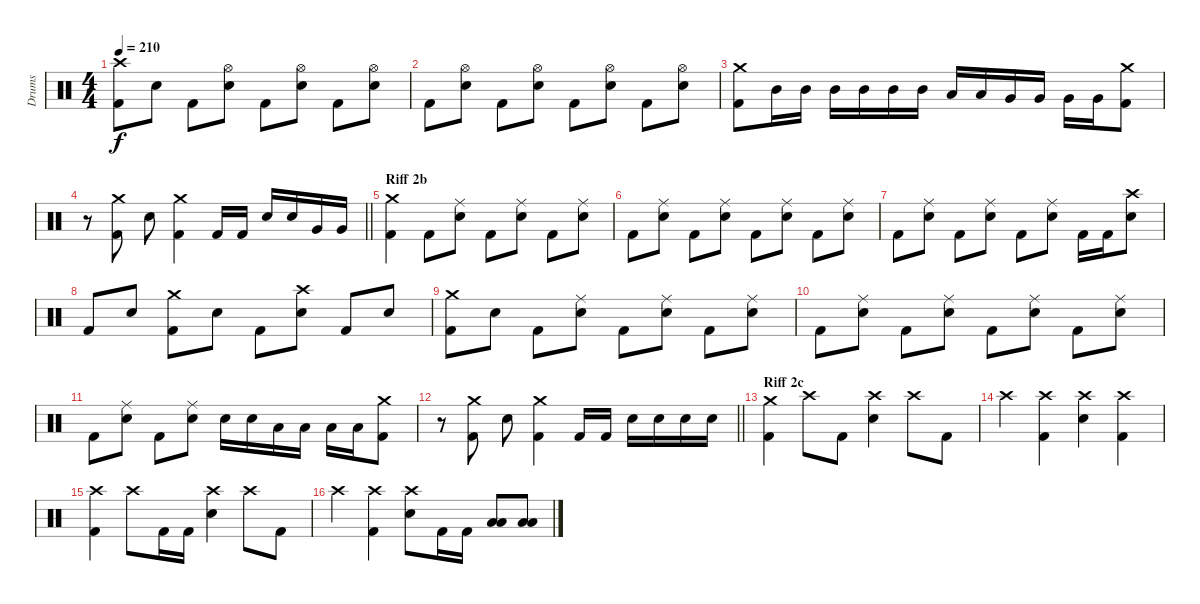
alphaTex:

\track ("Drums" "Drums") {instrument percussion}
\staff {score}
\articulation defaults
\ts (4 4)
\tempo 210
\clef neutral
\ks c
("Kick (hit) 2" "Crash high (hit)").8{dy f} "Electric Snare (hit)".8 "Kick (hit) 2".8 ("Electric Snare (hit)" "Hi-Hat (open)").8 "Kick (hit) 2".8 ("Electric Snare (hit)" "Hi-Hat (open)").8 "Kick (hit) 2".8 ("Electric Snare (hit)" "Hi-Hat (open)").8 |
"Kick (hit) 2".8 ("Electric Snare (hit)" "Hi-Hat (open)").8 "Kick (hit) 2".8 ("Electric Snare (hit)" "Hi-Hat (open)").8 "Kick (hit) 2".8 ("Electric Snare (hit)" "Hi-Hat (open)").8 "Kick (hit) 2".8 ("Electric Snare (hit)" "Hi-Hat (open)").8 |
("Crash medium (hit)" "Kick (hit) 2").8 "Mid Tom (hit)".16 "Mid Tom (hit)".16 "Mid Tom (hit)".16 "Mid Tom (hit)".16 "Mid Tom (hit)".16 "Mid Tom (hit)".16 "Low Tom (hit)".16 "Low Tom (hit)".16 "Very Low Tom (hit)".16 "Very Low Tom (hit)".16 "Very Low Tom (hit)".16 "Very Low Tom (hit)".16 ("Kick (hit) 2" "Crash medium (hit)").8 |
\barLineRight lightlight
r.8 ("Kick (hit) 2" "Crash medium (hit)").8 "Electric Snare (hit)".8 ("Kick (hit) 2" "Crash medium (hit)").4 "Kick (hit) 2".16 "Kick (hit) 2".16 "Electric Snare (hit)".16 "Electric Snare (hit)".16 "Very Low Tom (hit)".16 "Very Low Tom (hit)".16 |
\section ("" "Riff 2b")
("Crash medium (hit)" "Kick (hit) 2").4 "Kick (hit) 2".8 ("Electric Snare (hit)" "Ride (middle)").8 "Kick (hit) 2".8 ("Electric Snare (hit)" "Ride (middle)").8 "Kick (hit) 2".8 ("Electric Snare (hit)" "Ride (middle)").8 |
"Kick (hit) 2".8 ("Electric Snare (hit)" "Ride (middle)").8 "Kick (hit) 2".8 ("Electric Snare (hit)" "Ride (middle)").8 "Kick (hit) 2".8 ("Electric Snare (hit)" "Ride (middle)").8 "Kick (hit) 2".8 ("Electric Snare (hit)" "Ride (middle)").8 |
"Kick (hit) 2".8 ("Electric Snare (hit)" "Ride (middle)").8 "Kick (hit) 2".8 ("Electric Snare (hit)" "Ride (middle)").8 "Kick (hit) 2".8 ("Electric Snare (hit)" "Ride (middle)").8 "Kick (hit) 2".16 "Kick (hit) 2".16 ("Electric Snare (hit)" "Crash high (hit)").8 |
"Kick (hit) 2".8 "Electric Snare (hit)".8 ("Crash medium (hit)" "Kick (hit) 2").8 "Electric Snare (hit)".8 "Kick (hit) 2".8 ("Crash high (hit)" "Electric Snare (hit)").8 "Kick (hit) 2".8 "Electric Snare (hit)".8 |
("Kick (hit) 2" "Crash medium (hit)").8 "Electric Snare (hit)".8 "Kick (hit) 2".8 ("Electric Snare (hit)" "Ride (middle)").8 "Kick (hit) 2".8 ("Electric Snare (hit)" "Ride (middle)").8 "Kick (hit) 2".8 ("Electric Snare (hit)" "Ride (middle)").8 |
"Kick (hit) 2".8 ("Electric Snare (hit)" "Ride (middle)").8 "Kick (hit) 2".8 ("Electric Snare (hit)" "Ride (middle)").8 "Kick (hit) 2".8 ("Electric Snare (hit)" "Ride (middle)").8 "Kick (hit) 2".8 ("Electric Snare (hit)" "Ride (middle)").8 |
"Kick (hit) 2".8 ("Electric Snare (hit)" "Ride (middle)").8 "Kick (hit) 2".8 ("Electric Snare (hit)" "Ride (middle)").8 "Electric Snare (hit)".16 "Electric Snare (hit)".16 "Low Tom (hit)".16 "Low Tom (hit)".16 "Low Floor Tom (hit)".16 "Low Floor Tom (hit)".16 ("Kick (hit) 2" "Crash medium (hit)").8 |
\barLineRight lightlight
r.8 ("Crash medium (hit)" "Kick (hit) 2").8 "Electric Snare (hit)".8 ("Crash medium (hit)" "Kick (hit) 2").4 "Kick (hit) 2".16 "Kick (hit) 2".16 "Electric Snare (hit)".16 "Electric Snare (hit)".16 "Electric Snare (hit)".16 "Electric Snare (hit)".16 |
\section ("" "Riff 2c")
("Kick (hit) 2" "Crash medium (hit)").4 "Crash high (hit)".8 "Kick (hit) 2".8 ("Electric Snare (hit)" "Crash high (hit)").4 "Crash high (hit)".8 "Kick (hit) 2".8 |
"Crash high (hit)".4 ("Kick (hit) 2" "Crash high (hit)").4 ("Electric Snare (hit)" "Crash high (hit)").4 ("Kick (hit) 2" "Crash high (hit)").4 |
("Kick (hit) 2" "Crash high (hit)").4 "Crash high (hit)".8 "Kick (hit) 2".16 "Kick (hit) 2".16 ("Electric Snare (hit)" "Crash high (hit)").4 "Crash high (hit)".8 "Kick (hit) 2".8 |
"Crash high (hit)".4 ("Kick (hit) 2" "Crash high (hit)").4 ("Electric Snare (hit)" "Crash high (hit)").8 "Kick (hit) 2".16 "Kick (hit) 2".16 ("Low Tom (hit)" "Low Floor Tom (hit)").8 ("Low Tom (hit)" "Low Floor Tom (hit)").8
